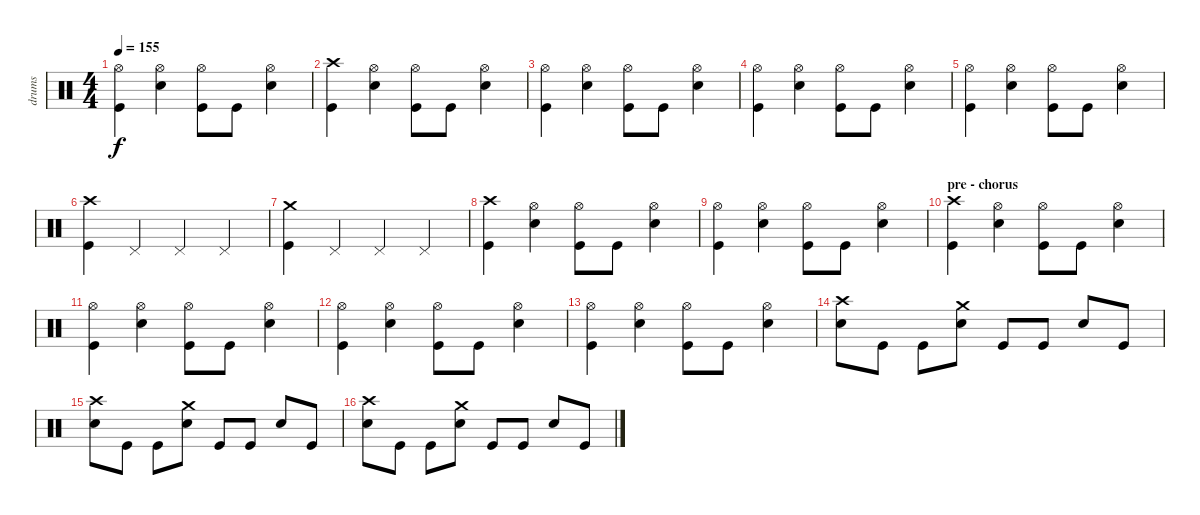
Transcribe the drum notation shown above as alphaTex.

\track ("drums" "drums") {instrument percussion}
\staff {score}
\articulation defaults
\ts (4 4)
\tempo 155
\clef neutral
\ks c
("Hi-Hat (open)" "Kick (hit)").4{dy f} ("Hi-Hat (open)" "Snare (hit) 2").4 ("Hi-Hat (open)" "Kick (hit)").8 "Kick (hit)".8 ("Hi-Hat (open)" "Snare (hit) 2").4 |
("Crash high (hit)" "Kick (hit)").4 ("Hi-Hat (open)" "Snare (hit) 2").4 ("Hi-Hat (open)" "Kick (hit)").8 "Kick (hit)".8 ("Hi-Hat (open)" "Snare (hit) 2").4 |
("Hi-Hat (open)" "Kick (hit)").4 ("Hi-Hat (open)" "Snare (hit) 2").4 ("Hi-Hat (open)" "Kick (hit)").8 "Kick (hit)".8 ("Hi-Hat (open)" "Snare (hit) 2").4 |
("Hi-Hat (open)" "Kick (hit)").4 ("Hi-Hat (open)" "Snare (hit) 2").4 ("Hi-Hat (open)" "Kick (hit)").8 "Kick (hit)".8 ("Hi-Hat (open)" "Snare (hit) 2").4 |
("Hi-Hat (open)" "Kick (hit)").4 ("Hi-Hat (open)" "Snare (hit) 2").4 ("Hi-Hat (open)" "Kick (hit)").8 "Kick (hit)".8 ("Hi-Hat (open)" "Snare (hit) 2").4 |
("Crash high (hit)" "Kick (hit)").4 "Pedal Hi-Hat (hit)".4 "Pedal Hi-Hat (hit)".4 "Pedal Hi-Hat (hit)".4 |
("Crash medium (hit)" "Kick (hit)").4 "Pedal Hi-Hat (hit)".4 "Pedal Hi-Hat (hit)".4 "Pedal Hi-Hat (hit)".4 |
("Crash high (hit)" "Kick (hit)").4 ("Hi-Hat (open)" "Snare (hit) 2").4 ("Hi-Hat (open)" "Kick (hit)").8 "Kick (hit)".8 ("Hi-Hat (open)" "Snare (hit) 2").4 |
("Hi-Hat (open)" "Kick (hit)").4 ("Hi-Hat (open)" "Snare (hit) 2").4 ("Hi-Hat (open)" "Kick (hit)").8 "Kick (hit)".8 ("Hi-Hat (open)" "Snare (hit) 2").4 |
\section ("" "pre - chorus")
("Crash high (hit)" "Kick (hit)").4 ("Hi-Hat (open)" "Snare (hit) 2").4 ("Hi-Hat (open)" "Kick (hit)").8 "Kick (hit)".8 ("Hi-Hat (open)" "Snare (hit) 2").4 |
("Hi-Hat (open)" "Kick (hit)").4 ("Hi-Hat (open)" "Snare (hit) 2").4 ("Hi-Hat (open)" "Kick (hit)").8 "Kick (hit)".8 ("Hi-Hat (open)" "Snare (hit) 2").4 |
("Hi-Hat (open)" "Kick (hit)").4 ("Hi-Hat (open)" "Snare (hit) 2").4 ("Hi-Hat (open)" "Kick (hit)").8 "Kick (hit)".8 ("Hi-Hat (open)" "Snare (hit) 2").4 |
("Hi-Hat (open)" "Kick (hit)").4 ("Hi-Hat (open)" "Snare (hit) 2").4 ("Hi-Hat (open)" "Kick (hit)").8 "Kick (hit)".8 ("Hi-Hat (open)" "Snare (hit) 2").4 |
("Crash high (hit)" "Snare (hit) 2").8 "Kick (hit)".8 "Kick (hit)".8 ("Crash medium (hit)" "Snare (hit) 2").8 "Kick (hit)".8 "Kick (hit)".8 "Snare (hit) 2".8 "Kick (hit)".8 |
("Crash high (hit)" "Snare (hit) 2").8 "Kick (hit)".8 "Kick (hit)".8 ("Crash medium (hit)" "Snare (hit) 2").8 "Kick (hit)".8 "Kick (hit)".8 "Snare (hit) 2".8 "Kick (hit)".8 |
("Crash high (hit)" "Snare (hit) 2").8 "Kick (hit)".8 "Kick (hit)".8 ("Crash medium (hit)" "Snare (hit) 2").8 "Kick (hit)".8 "Kick (hit)".8 "Snare (hit) 2".8 "Kick (hit)".8
